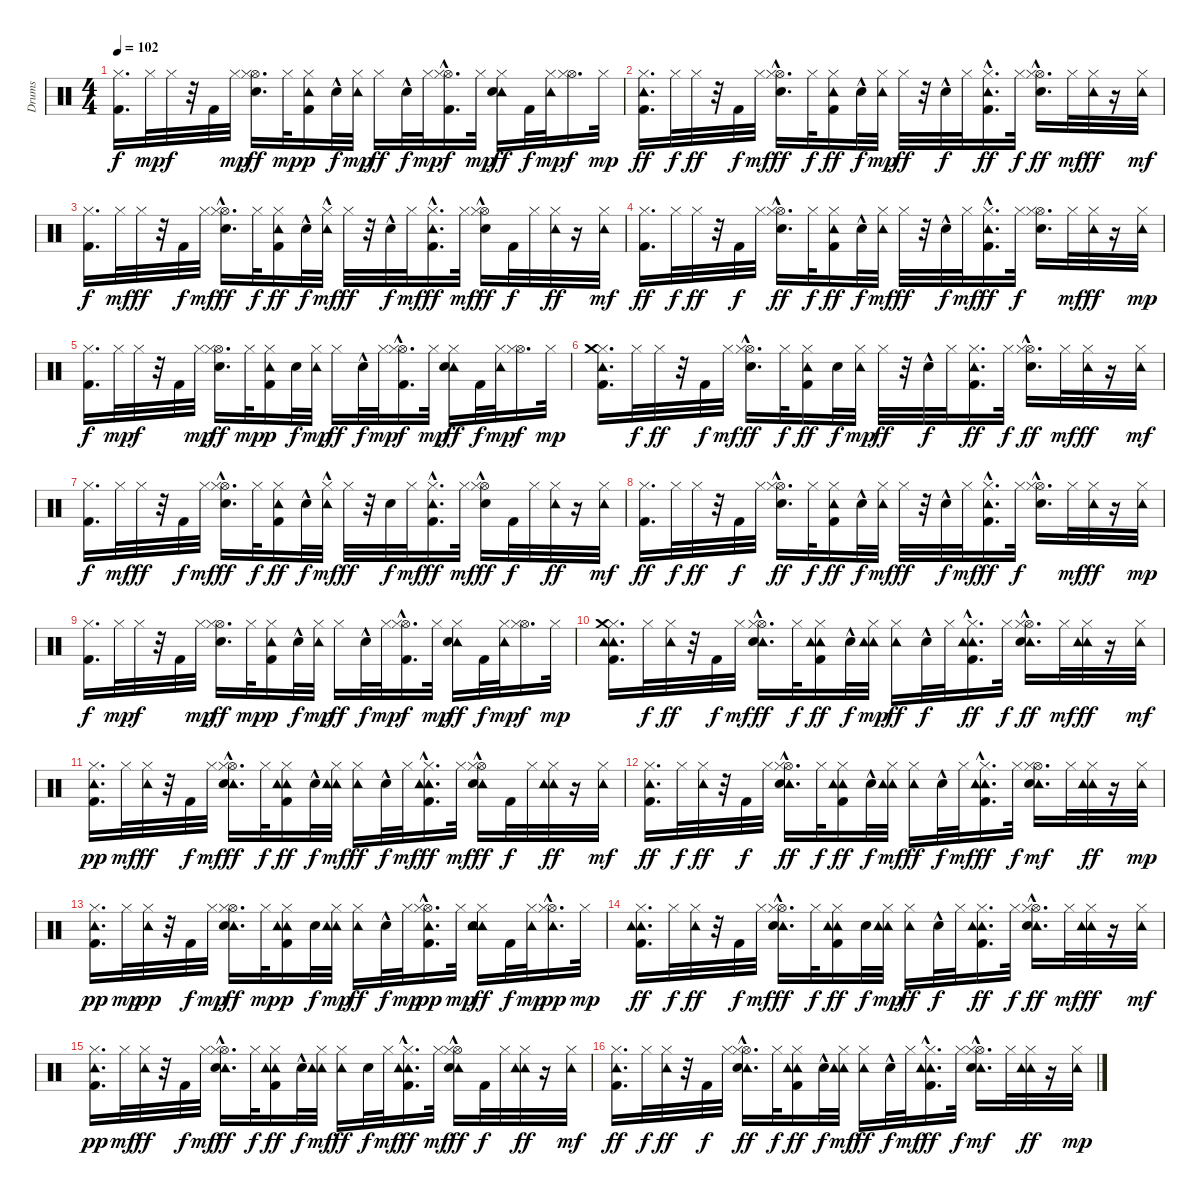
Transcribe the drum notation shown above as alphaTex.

\track ("Drums" "Drums") {instrument percussion}
\staff {score}
\articulation defaults
\ts (4 4)
\tempo 102
\clef neutral
\ks c
("Kick (hit) 2" "Hi-Hat (closed)").16{d dy f} "Hi-Hat (closed)".32{dy mp} "Hi-Hat (closed)".32{dy f} r.32 "Kick (hit) 2".32 "Hi-Hat (closed)".32{dy mp} ("Hi-Hat (open)" "Hi-Hat (closed)" "Electric Snare (hit)").16{d dy ff} "Hi-Hat (closed)".32{dy mp} ("Kick (hit) 2" "Tambourine (hit)" "Hi-Hat (closed)").16{dy p} "Snare (hit) 2"{hac}.32{dy f} ("Tambourine (hit)" "Hi-Hat (closed)").32{dy mp} "Hi-Hat (closed)".16{dy ff} "Snare (hit) 2"{hac}.32{dy f} "Hi-Hat (closed)".32{dy mp} ("Kick (hit) 2"{hac} "Hi-Hat (open)"{hac} "Hi-Hat (closed)").16{d dy f} "Hi-Hat (closed)".32{dy mp} ("Tambourine (hit)" "Hi-Hat (closed)" "Electric Snare (hit)").16{dy ff} "Kick (hit) 2".32{dy f} ("Tambourine (hit)" "Hi-Hat (closed)").32{dy mp} ("Hi-Hat (open)" "Hi-Hat (closed)").16{d dy f} "Hi-Hat (closed)".32{dy mp} |
("Kick (hit) 2" "Tambourine (hit)" "Hi-Hat (closed)").16{d dy ff} "Hi-Hat (closed)".32{dy f} "Hi-Hat (closed)".32{dy ff} r.32 "Kick (hit) 2".32{dy f} "Hi-Hat (closed)".32{dy mf} ("Hi-Hat (open)"{hac} "Hi-Hat (closed)" "Electric Snare (hit)").16{d dy ff} "Hi-Hat (closed)".32{dy f} ("Kick (hit) 2" "Tambourine (hit)" "Hi-Hat (closed)").16{dy ff} "Snare (hit) 2"{hac}.32{dy f} ("Tambourine (hit)" "Hi-Hat (closed)").32{dy mp} "Hi-Hat (closed)".32{dy ff} r.32 "Snare (hit) 2"{hac}.32{dy f} "Hi-Hat (closed)".32 ("Kick (hit) 2"{hac} "Tambourine (hit)" "Hi-Hat (closed)").16{d dy ff} "Hi-Hat (closed)".32{dy f} ("Hi-Hat (open)"{hac} "Hi-Hat (closed)" "Electric Snare (hit)"{hac}).16{d dy ff} "Hi-Hat (closed)".32{dy mf} ("Tambourine (hit)" "Hi-Hat (closed)").32{dy ff} r.16 ("Tambourine (hit)" "Hi-Hat (closed)").32{dy mf} |
("Kick (hit) 2" "Hi-Hat (closed)").16{d dy f} "Hi-Hat (closed)".32{dy mf} "Hi-Hat (closed)".32{dy ff} r.32 "Kick (hit) 2".32{dy f} "Hi-Hat (closed)".32{dy mf} ("Hi-Hat (open)"{hac} "Hi-Hat (closed)" "Electric Snare (hit)").16{d dy ff} "Hi-Hat (closed)".32{dy f} ("Kick (hit) 2" "Tambourine (hit)" "Hi-Hat (closed)").16{dy ff} "Snare (hit) 2"{hac}.32{dy f} ("Tambourine (hit)"{hac} "Hi-Hat (closed)").32{dy mf} "Hi-Hat (closed)".32{dy ff} r.32 "Snare (hit) 2"{hac}.32{dy f} "Hi-Hat (closed)".32{dy mf} ("Kick (hit) 2"{hac} "Tambourine (hit)" "Hi-Hat (closed)").16{d dy ff} "Hi-Hat (closed)".32{dy mf} ("Hi-Hat (open)"{hac} "Hi-Hat (closed)" "Electric Snare (hit)").16{dy ff} "Kick (hit) 2".32{dy f} "Hi-Hat (closed)".32 ("Tambourine (hit)" "Hi-Hat (closed)").32{dy ff} r.16 ("Tambourine (hit)" "Hi-Hat (closed)").32{dy mf} |
("Kick (hit) 2" "Hi-Hat (closed)").16{d dy ff} "Hi-Hat (closed)".32{dy f} "Hi-Hat (closed)".32{dy ff} r.32 "Kick (hit) 2".32{dy f} "Hi-Hat (closed)".32 ("Hi-Hat (open)"{hac} "Hi-Hat (closed)" "Electric Snare (hit)").16{d dy ff} "Hi-Hat (closed)".32{dy f} ("Kick (hit) 2" "Tambourine (hit)" "Hi-Hat (closed)").16{dy ff} "Snare (hit) 2"{hac}.32{dy f} ("Tambourine (hit)" "Hi-Hat (closed)").32{dy mf} "Hi-Hat (closed)".32{dy ff} r.32 "Snare (hit) 2"{hac}.32{dy f} "Hi-Hat (closed)".32{dy mf} ("Kick (hit) 2"{hac} "Tambourine (hit)" "Hi-Hat (closed)").16{d dy ff} "Hi-Hat (closed)".32{dy f} ("Hi-Hat (open)" "Hi-Hat (closed)" "Electric Snare (hit)").16{d} "Hi-Hat (closed)".32{dy mf} ("Tambourine (hit)" "Hi-Hat (closed)").32{dy ff} r.16 ("Tambourine (hit)" "Hi-Hat (closed)").32{dy mp} |
("Kick (hit) 2" "Hi-Hat (closed)").16{d dy f} "Hi-Hat (closed)".32{dy mp} "Hi-Hat (closed)".32{dy f} r.32 "Kick (hit) 2".32 "Hi-Hat (closed)".32{dy mp} ("Hi-Hat (open)" "Hi-Hat (closed)" "Electric Snare (hit)").16{d dy ff} "Hi-Hat (closed)".32{dy mp} ("Kick (hit) 2" "Tambourine (hit)" "Hi-Hat (closed)").16{dy p} "Snare (hit) 2".32{dy f} ("Tambourine (hit)" "Hi-Hat (closed)").32{dy mp} "Hi-Hat (closed)".16{dy ff} "Snare (hit) 2"{hac}.32{dy f} "Hi-Hat (closed)".32{dy mp} ("Kick (hit) 2"{hac} "Hi-Hat (open)"{hac} "Hi-Hat (closed)").16{d dy f} "Hi-Hat (closed)".32{dy mp} ("Tambourine (hit)" "Hi-Hat (closed)" "Electric Snare (hit)").16{dy ff} "Kick (hit) 2".32{dy f} ("Tambourine (hit)" "Hi-Hat (closed)").32{dy mp} ("Hi-Hat (open)" "Hi-Hat (closed)").16{d dy f} "Hi-Hat (closed)".32{dy mp} |
("Kick (hit) 2" "Tambourine (hit)" "Hi-Hat (closed)" "Crash medium (hit)").16{d} "Hi-Hat (closed)".32{dy f} "Hi-Hat (closed)".32{dy ff} r.32 "Kick (hit) 2".32{dy f} "Hi-Hat (closed)".32{dy mf} ("Hi-Hat (open)"{hac} "Hi-Hat (closed)" "Electric Snare (hit)").16{d dy ff} "Hi-Hat (closed)".32{dy f} ("Kick (hit) 2" "Tambourine (hit)" "Hi-Hat (closed)").16{dy ff} "Snare (hit) 2".32{dy f} ("Tambourine (hit)" "Hi-Hat (closed)").32{dy mp} "Hi-Hat (closed)".32{dy ff} r.32 "Snare (hit) 2"{hac}.32{dy f} "Hi-Hat (closed)".32 ("Kick (hit) 2" "Tambourine (hit)" "Hi-Hat (closed)").16{d dy ff} "Hi-Hat (closed)".32{dy f} ("Hi-Hat (open)"{hac} "Hi-Hat (closed)" "Electric Snare (hit)"{hac}).16{d dy ff} "Hi-Hat (closed)".32{dy mf} ("Tambourine (hit)" "Hi-Hat (closed)").32{dy ff} r.16 ("Tambourine (hit)" "Hi-Hat (closed)").32{dy mf} |
("Kick (hit) 2" "Hi-Hat (closed)").16{d dy f} "Hi-Hat (closed)".32{dy mf} "Hi-Hat (closed)".32{dy ff} r.32 "Kick (hit) 2".32{dy f} "Hi-Hat (closed)".32{dy mf} ("Hi-Hat (open)"{hac} "Hi-Hat (closed)" "Electric Snare (hit)").16{d dy ff} "Hi-Hat (closed)".32{dy f} ("Kick (hit) 2" "Tambourine (hit)" "Hi-Hat (closed)").16{dy ff} "Snare (hit) 2"{hac}.32{dy f} ("Tambourine (hit)"{hac} "Hi-Hat (closed)").32{dy mf} "Hi-Hat (closed)".32{dy ff} r.32 "Snare (hit) 2".32{dy f} "Hi-Hat (closed)".32{dy mf} ("Kick (hit) 2"{hac} "Tambourine (hit)" "Hi-Hat (closed)").16{d dy ff} "Hi-Hat (closed)".32{dy mf} ("Hi-Hat (open)"{hac} "Hi-Hat (closed)" "Electric Snare (hit)").16{dy ff} "Kick (hit) 2".32{dy f} "Hi-Hat (closed)".32 ("Tambourine (hit)" "Hi-Hat (closed)").32{dy ff} r.16 ("Tambourine (hit)" "Hi-Hat (closed)").32{dy mf} |
("Kick (hit) 2" "Hi-Hat (closed)").16{d dy ff} "Hi-Hat (closed)".32{dy f} "Hi-Hat (closed)".32{dy ff} r.32 "Kick (hit) 2".32{dy f} "Hi-Hat (closed)".32 ("Hi-Hat (open)"{hac} "Hi-Hat (closed)" "Electric Snare (hit)").16{d dy ff} "Hi-Hat (closed)".32{dy f} ("Kick (hit) 2" "Tambourine (hit)" "Hi-Hat (closed)").16{dy ff} "Snare (hit) 2"{hac}.32{dy f} ("Tambourine (hit)" "Hi-Hat (closed)").32{dy mf} "Hi-Hat (closed)".32{dy ff} r.32 "Snare (hit) 2"{hac}.32{dy f} "Hi-Hat (closed)".32{dy mf} ("Kick (hit) 2"{hac} "Tambourine (hit)" "Hi-Hat (closed)").16{d dy ff} "Hi-Hat (closed)".32{dy f} ("Hi-Hat (open)" "Hi-Hat (closed)" "Electric Snare (hit)"{hac}).16{d} "Hi-Hat (closed)".32{dy mf} ("Tambourine (hit)" "Hi-Hat (closed)").32{dy ff} r.16 ("Tambourine (hit)" "Hi-Hat (closed)").32{dy mp} |
("Kick (hit) 2" "Hi-Hat (closed)").16{d dy f} "Hi-Hat (closed)".32{dy mp} "Hi-Hat (closed)".32{dy f} r.32 "Kick (hit) 2".32 "Hi-Hat (closed)".32{dy mp} ("Hi-Hat (open)" "Hi-Hat (closed)" "Electric Snare (hit)").16{d dy ff} "Hi-Hat (closed)".32{dy mp} ("Kick (hit) 2" "Tambourine (hit)" "Hi-Hat (closed)").16{dy p} "Snare (hit) 2"{hac}.32{dy f} ("Tambourine (hit)" "Hi-Hat (closed)").32{dy mp} "Hi-Hat (closed)".16{dy ff} "Snare (hit) 2"{hac}.32{dy f} "Hi-Hat (closed)".32{dy mp} ("Kick (hit) 2"{hac} "Hi-Hat (open)"{hac} "Hi-Hat (closed)").16{d dy f} "Hi-Hat (closed)".32{dy mp} ("Tambourine (hit)" "Hi-Hat (closed)" "Electric Snare (hit)").16{dy ff} "Kick (hit) 2".32{dy f} ("Tambourine (hit)" "Hi-Hat (closed)").32{dy mp} ("Hi-Hat (open)" "Hi-Hat (closed)").16{d dy f} "Hi-Hat (closed)".32{dy mp} |
("Tambourine (hit)" "Kick (hit) 2" "Tambourine (hit)" "Hi-Hat (closed)" "Crash medium (hit)").16{d} "Hi-Hat (closed)".32{dy f} ("Tambourine (hit)" "Hi-Hat (closed)").32{dy ff} r.32 "Kick (hit) 2".32{dy f} "Hi-Hat (closed)".32{dy mf} ("Tambourine (hit)" "Hi-Hat (open)"{hac} "Hi-Hat (closed)" "Electric Snare (hit)").16{d dy ff} "Hi-Hat (closed)".32{dy f} ("Tambourine (hit)" "Kick (hit) 2" "Tambourine (hit)" "Hi-Hat (closed)").16{dy ff} "Snare (hit) 2"{hac}.32{dy f} ("Tambourine (hit)" "Tambourine (hit)" "Hi-Hat (closed)").32{dy mp} ("Tambourine (hit)" "Hi-Hat (closed)").16{dy ff} "Snare (hit) 2"{hac}.32{dy f} "Hi-Hat (closed)".32 ("Tambourine (hit)" "Kick (hit) 2"{hac} "Tambourine (hit)" "Hi-Hat (closed)").16{d dy ff} "Hi-Hat (closed)".32{dy f} ("Tambourine (hit)" "Hi-Hat (open)"{hac} "Hi-Hat (closed)" "Electric Snare (hit)"{hac}).16{d dy ff} "Hi-Hat (closed)".32{dy mf} ("Tambourine (hit)" "Tambourine (hit)" "Hi-Hat (closed)").32{dy ff} r.16 ("Tambourine (hit)" "Hi-Hat (closed)").32{dy mf} |
("Tambourine (hit)" "Kick (hit) 2" "Hi-Hat (closed)").16{d dy pp} "Hi-Hat (closed)".32{dy mf} ("Tambourine (hit)" "Hi-Hat (closed)").32{dy ff} r.32 "Kick (hit) 2".32{dy f} "Hi-Hat (closed)".32{dy mf} ("Tambourine (hit)" "Hi-Hat (open)"{hac} "Hi-Hat (closed)" "Electric Snare (hit)").16{d dy ff} "Hi-Hat (closed)".32{dy f} ("Tambourine (hit)" "Kick (hit) 2" "Tambourine (hit)" "Hi-Hat (closed)").16{dy ff} "Snare (hit) 2"{hac}.32{dy f} ("Tambourine (hit)" "Tambourine (hit)" "Hi-Hat (closed)").32{dy mf} ("Tambourine (hit)" "Hi-Hat (closed)").16{dy ff} "Snare (hit) 2"{hac}.32{dy f} "Hi-Hat (closed)".32{dy mf} ("Tambourine (hit)" "Kick (hit) 2"{hac} "Tambourine (hit)" "Hi-Hat (closed)").16{d dy ff} "Hi-Hat (closed)".32{dy mf} ("Tambourine (hit)" "Hi-Hat (open)"{hac} "Hi-Hat (closed)" "Electric Snare (hit)").16{dy ff} "Kick (hit) 2".32{dy f} "Hi-Hat (closed)".32 ("Tambourine (hit)" "Tambourine (hit)" "Hi-Hat (closed)").32{dy ff} r.16 ("Tambourine (hit)" "Hi-Hat (closed)").32{dy mf} |
("Tambourine (hit)" "Kick (hit) 2" "Hi-Hat (closed)").16{d dy ff} "Hi-Hat (closed)".32{dy f} ("Tambourine (hit)" "Hi-Hat (closed)").32{dy ff} r.32 "Kick (hit) 2".32{dy f} "Hi-Hat (closed)".32 ("Tambourine (hit)" "Hi-Hat (open)"{hac} "Hi-Hat (closed)" "Electric Snare (hit)").16{d dy ff} "Hi-Hat (closed)".32{dy f} ("Tambourine (hit)" "Kick (hit) 2" "Tambourine (hit)" "Hi-Hat (closed)").16{dy ff} "Snare (hit) 2"{hac}.32{dy f} ("Tambourine (hit)" "Tambourine (hit)" "Hi-Hat (closed)").32{dy mf} ("Tambourine (hit)" "Hi-Hat (closed)").16{dy ff} "Snare (hit) 2"{hac}.32{dy f} "Hi-Hat (closed)".32{dy mf} ("Tambourine (hit)" "Kick (hit) 2"{hac} "Tambourine (hit)" "Hi-Hat (closed)").16{d dy ff} "Hi-Hat (closed)".32{dy f} ("Tambourine (hit)" "Hi-Hat (open)" "Hi-Hat (closed)" "Electric Snare (hit)").16{d dy mf} "Hi-Hat (closed)".32 ("Tambourine (hit)" "Tambourine (hit)" "Hi-Hat (closed)").32{dy ff} r.16 ("Tambourine (hit)" "Hi-Hat (closed)").32{dy mp} |
("Tambourine (hit)" "Kick (hit) 2" "Hi-Hat (closed)").16{d dy pp} "Hi-Hat (closed)".32{dy mp} ("Tambourine (hit)" "Hi-Hat (closed)").32{dy pp} r.32 "Kick (hit) 2".32{dy f} "Hi-Hat (closed)".32{dy mp} ("Tambourine (hit)" "Hi-Hat (open)" "Hi-Hat (closed)" "Electric Snare (hit)").16{d dy ff} "Hi-Hat (closed)".32{dy mp} ("Tambourine (hit)" "Kick (hit) 2" "Tambourine (hit)" "Hi-Hat (closed)").16{dy p} "Snare (hit) 2".32{dy f} ("Tambourine (hit)" "Tambourine (hit)" "Hi-Hat (closed)").32{dy mp} ("Tambourine (hit)" "Hi-Hat (closed)").16{dy ff} "Snare (hit) 2"{hac}.32{dy f} "Hi-Hat (closed)".32{dy mp} ("Tambourine (hit)"{hac} "Kick (hit) 2"{hac} "Hi-Hat (open)"{hac} "Hi-Hat (closed)").16{d dy pp} "Hi-Hat (closed)".32{dy mp} ("Tambourine (hit)" "Tambourine (hit)" "Hi-Hat (closed)" "Electric Snare (hit)").16{dy ff} "Kick (hit) 2".32{dy f} ("Tambourine (hit)" "Hi-Hat (closed)").32{dy mp} ("Tambourine (hit)"{hac} "Hi-Hat (open)" "Hi-Hat (closed)").16{d dy pp} "Hi-Hat (closed)".32{dy mp} |
("Tambourine (hit)" "Kick (hit) 2" "Tambourine (hit)" "Hi-Hat (closed)").16{d dy ff} "Hi-Hat (closed)".32{dy f} ("Tambourine (hit)" "Hi-Hat (closed)").32{dy ff} r.32 "Kick (hit) 2".32{dy f} "Hi-Hat (closed)".32{dy mf} ("Tambourine (hit)" "Hi-Hat (open)"{hac} "Hi-Hat (closed)" "Electric Snare (hit)").16{d dy ff} "Hi-Hat (closed)".32{dy f} ("Tambourine (hit)" "Kick (hit) 2" "Tambourine (hit)" "Hi-Hat (closed)").16{dy ff} "Snare (hit) 2".32{dy f} ("Tambourine (hit)" "Tambourine (hit)" "Hi-Hat (closed)").32{dy mp} ("Tambourine (hit)" "Hi-Hat (closed)").16{dy ff} "Snare (hit) 2"{hac}.32{dy f} "Hi-Hat (closed)".32 ("Tambourine (hit)" "Kick (hit) 2" "Tambourine (hit)" "Hi-Hat (closed)").16{d dy ff} "Hi-Hat (closed)".32{dy f} ("Tambourine (hit)" "Hi-Hat (open)"{hac} "Hi-Hat (closed)" "Electric Snare (hit)"{hac}).16{d dy ff} "Hi-Hat (closed)".32{dy mf} ("Tambourine (hit)" "Tambourine (hit)" "Hi-Hat (closed)").32{dy ff} r.16 ("Tambourine (hit)" "Hi-Hat (closed)").32{dy mf} |
("Tambourine (hit)" "Kick (hit) 2" "Hi-Hat (closed)").16{d dy pp} "Hi-Hat (closed)".32{dy mf} ("Tambourine (hit)" "Hi-Hat (closed)").32{dy ff} r.32 "Kick (hit) 2".32{dy f} "Hi-Hat (closed)".32{dy mf} ("Tambourine (hit)" "Hi-Hat (open)"{hac} "Hi-Hat (closed)" "Electric Snare (hit)").16{d dy ff} "Hi-Hat (closed)".32{dy f} ("Tambourine (hit)" "Kick (hit) 2" "Tambourine (hit)" "Hi-Hat (closed)").16{dy ff} "Snare (hit) 2"{hac}.32{dy f} ("Tambourine (hit)" "Tambourine (hit)" "Hi-Hat (closed)").32{dy mf} ("Tambourine (hit)" "Hi-Hat (closed)").16{dy ff} "Snare (hit) 2".32{dy f} "Hi-Hat (closed)".32{dy mf} ("Tambourine (hit)" "Kick (hit) 2"{hac} "Tambourine (hit)" "Hi-Hat (closed)").16{d dy ff} "Hi-Hat (closed)".32{dy mf} ("Tambourine (hit)" "Hi-Hat (open)"{hac} "Hi-Hat (closed)" "Electric Snare (hit)").16{dy ff} "Kick (hit) 2".32{dy f} "Hi-Hat (closed)".32 ("Tambourine (hit)" "Tambourine (hit)" "Hi-Hat (closed)").32{dy ff} r.16 ("Tambourine (hit)" "Hi-Hat (closed)").32{dy mf} |
("Tambourine (hit)" "Kick (hit) 2" "Hi-Hat (closed)").16{d dy ff} "Hi-Hat (closed)".32{dy f} ("Tambourine (hit)" "Hi-Hat (closed)").32{dy ff} r.32 "Kick (hit) 2".32{dy f} "Hi-Hat (closed)".32 ("Tambourine (hit)" "Hi-Hat (open)"{hac} "Hi-Hat (closed)" "Electric Snare (hit)").16{d dy ff} "Hi-Hat (closed)".32{dy f} ("Tambourine (hit)" "Kick (hit) 2" "Tambourine (hit)" "Hi-Hat (closed)").16{dy ff} "Snare (hit) 2"{hac}.32{dy f} ("Tambourine (hit)" "Tambourine (hit)" "Hi-Hat (closed)").32{dy mf} ("Tambourine (hit)" "Hi-Hat (closed)").16{dy ff} "Snare (hit) 2"{hac}.32{dy f} "Hi-Hat (closed)".32{dy mf} ("Tambourine (hit)" "Kick (hit) 2"{hac} "Tambourine (hit)" "Hi-Hat (closed)").16{d dy ff} "Hi-Hat (closed)".32{dy f} ("Tambourine (hit)" "Hi-Hat (open)" "Hi-Hat (closed)" "Electric Snare (hit)"{hac}).16{d dy mf} "Hi-Hat (closed)".32 ("Tambourine (hit)" "Tambourine (hit)" "Hi-Hat (closed)").32{dy ff} r.16 ("Tambourine (hit)" "Hi-Hat (closed)").32{dy mp}
